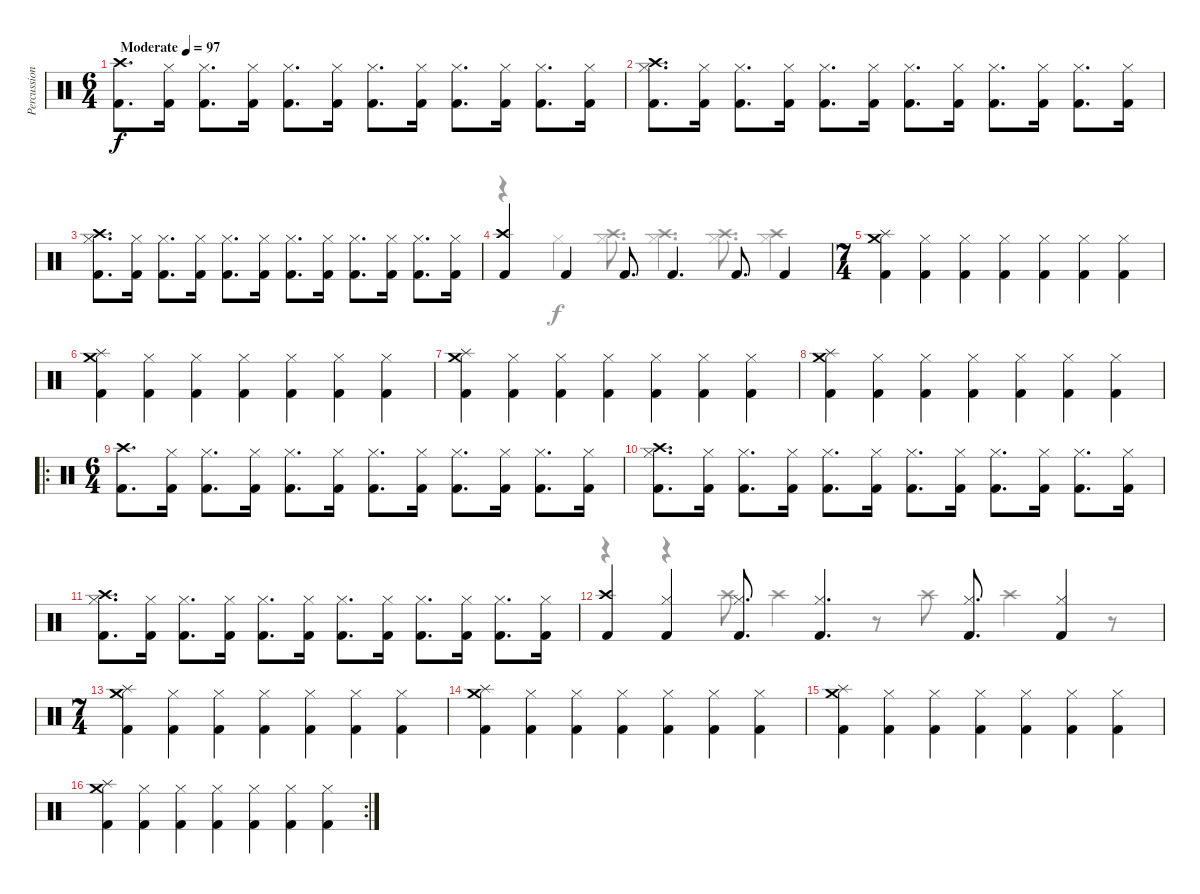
\track ("Percussion" "Percussion") {instrument percussion}
\staff {score}
\articulation defaults
\voice
\ts (6 4)
\tempo (97 "Moderate")
\clef neutral
\ks c
("Crash high (hit)" "Kick (hit) 2").8{d dy f} ("Kick (hit) 2" "Hi-Hat (closed)").16 ("Kick (hit) 2" "Hi-Hat (closed)").8{d} ("Kick (hit) 2" "Hi-Hat (closed)").16 ("Kick (hit) 2" "Hi-Hat (closed)").8{d} ("Kick (hit) 2" "Hi-Hat (closed)").16 ("Kick (hit) 2" "Hi-Hat (closed)").8{d} ("Kick (hit) 2" "Hi-Hat (closed)").16 ("Kick (hit) 2" "Hi-Hat (closed)").8{d} ("Kick (hit) 2" "Hi-Hat (closed)").16 ("Kick (hit) 2" "Hi-Hat (closed)").8{d} ("Kick (hit) 2" "Hi-Hat (closed)").16 |
("Crash high (hit)" "Kick (hit) 2" "Hi-Hat (closed)").8{d} ("Kick (hit) 2" "Hi-Hat (closed)").16 ("Kick (hit) 2" "Hi-Hat (closed)").8{d} ("Kick (hit) 2" "Hi-Hat (closed)").16 ("Kick (hit) 2" "Hi-Hat (closed)").8{d} ("Kick (hit) 2" "Hi-Hat (closed)").16 ("Kick (hit) 2" "Hi-Hat (closed)").8{d} ("Kick (hit) 2" "Hi-Hat (closed)").16 ("Kick (hit) 2" "Hi-Hat (closed)").8{d} ("Kick (hit) 2" "Hi-Hat (closed)").16 ("Kick (hit) 2" "Hi-Hat (closed)").8{d} ("Kick (hit) 2" "Hi-Hat (closed)").16 |
("Crash high (hit)" "Kick (hit) 2" "Hi-Hat (closed)").8{d} ("Kick (hit) 2" "Hi-Hat (closed)").16 ("Kick (hit) 2" "Hi-Hat (closed)").8{d} ("Kick (hit) 2" "Hi-Hat (closed)").16 ("Kick (hit) 2" "Hi-Hat (closed)").8{d} ("Kick (hit) 2" "Hi-Hat (closed)").16 ("Kick (hit) 2" "Hi-Hat (closed)").8{d} ("Kick (hit) 2" "Hi-Hat (closed)").16 ("Kick (hit) 2" "Hi-Hat (closed)").8{d} ("Kick (hit) 2" "Hi-Hat (closed)").16 ("Kick (hit) 2" "Hi-Hat (closed)").8{d} ("Kick (hit) 2" "Hi-Hat (closed)").16 |
("Kick (hit) 2" "Crash high (hit)").4 "Kick (hit) 2".4 "Kick (hit) 2".8{d} "Kick (hit) 2".4{d} "Kick (hit) 2".8{d} "Kick (hit) 2".4 |
\ts (7 4)
("Crash medium (hit)" "Kick (hit) 2" "Splash (hit)").4 ("Kick (hit) 2" "Hi-Hat (closed)").4 ("Kick (hit) 2" "Hi-Hat (closed)").4 ("Kick (hit) 2" "Hi-Hat (closed)").4 ("Kick (hit) 2" "Hi-Hat (closed)").4 ("Kick (hit) 2" "Hi-Hat (closed)").4 ("Kick (hit) 2" "Hi-Hat (closed)").4 |
("Crash medium (hit)" "Kick (hit) 2" "Splash (hit)").4 ("Kick (hit) 2" "Hi-Hat (closed)").4 ("Kick (hit) 2" "Hi-Hat (closed)").4 ("Kick (hit) 2" "Hi-Hat (closed)").4 ("Kick (hit) 2" "Hi-Hat (closed)").4 ("Kick (hit) 2" "Hi-Hat (closed)").4 ("Kick (hit) 2" "Hi-Hat (closed)").4 |
("Crash medium (hit)" "Kick (hit) 2" "Splash (hit)").4 ("Kick (hit) 2" "Hi-Hat (closed)").4 ("Kick (hit) 2" "Hi-Hat (closed)").4 ("Kick (hit) 2" "Hi-Hat (closed)").4 ("Kick (hit) 2" "Hi-Hat (closed)").4 ("Kick (hit) 2" "Hi-Hat (closed)").4 ("Kick (hit) 2" "Hi-Hat (closed)").4 |
("Crash medium (hit)" "Kick (hit) 2" "Splash (hit)").4 ("Kick (hit) 2" "Hi-Hat (closed)").4 ("Kick (hit) 2" "Hi-Hat (closed)").4 ("Kick (hit) 2" "Hi-Hat (closed)").4 ("Kick (hit) 2" "Hi-Hat (closed)").4 ("Kick (hit) 2" "Hi-Hat (closed)").4 ("Kick (hit) 2" "Hi-Hat (closed)").4 |
\ro
\ts (6 4)
("Crash high (hit)" "Kick (hit) 2").8{d} ("Kick (hit) 2" "Hi-Hat (closed)").16 ("Kick (hit) 2" "Hi-Hat (closed)").8{d} ("Kick (hit) 2" "Hi-Hat (closed)").16 ("Kick (hit) 2" "Hi-Hat (closed)").8{d} ("Kick (hit) 2" "Hi-Hat (closed)").16 ("Kick (hit) 2" "Hi-Hat (closed)").8{d} ("Kick (hit) 2" "Hi-Hat (closed)").16 ("Kick (hit) 2" "Hi-Hat (closed)").8{d} ("Kick (hit) 2" "Hi-Hat (closed)").16 ("Kick (hit) 2" "Hi-Hat (closed)").8{d} ("Kick (hit) 2" "Hi-Hat (closed)").16 |
("Crash high (hit)" "Kick (hit) 2" "Hi-Hat (closed)").8{d} ("Kick (hit) 2" "Hi-Hat (closed)").16 ("Kick (hit) 2" "Hi-Hat (closed)").8{d} ("Kick (hit) 2" "Hi-Hat (closed)").16 ("Kick (hit) 2" "Hi-Hat (closed)").8{d} ("Kick (hit) 2" "Hi-Hat (closed)").16 ("Kick (hit) 2" "Hi-Hat (closed)").8{d} ("Kick (hit) 2" "Hi-Hat (closed)").16 ("Kick (hit) 2" "Hi-Hat (closed)").8{d} ("Kick (hit) 2" "Hi-Hat (closed)").16 ("Kick (hit) 2" "Hi-Hat (closed)").8{d} ("Kick (hit) 2" "Hi-Hat (closed)").16 |
("Crash high (hit)" "Kick (hit) 2" "Hi-Hat (closed)").8{d} ("Kick (hit) 2" "Hi-Hat (closed)").16 ("Kick (hit) 2" "Hi-Hat (closed)").8{d} ("Kick (hit) 2" "Hi-Hat (closed)").16 ("Kick (hit) 2" "Hi-Hat (closed)").8{d} ("Kick (hit) 2" "Hi-Hat (closed)").16 ("Kick (hit) 2" "Hi-Hat (closed)").8{d} ("Kick (hit) 2" "Hi-Hat (closed)").16 ("Kick (hit) 2" "Hi-Hat (closed)").8{d} ("Kick (hit) 2" "Hi-Hat (closed)").16 ("Kick (hit) 2" "Hi-Hat (closed)").8{d} ("Kick (hit) 2" "Hi-Hat (closed)").16 |
("Kick (hit) 2" "Crash high (hit)").4 ("Kick (hit) 2" "Hi-Hat (closed)").4 ("Kick (hit) 2" "Hi-Hat (closed)").8{d} ("Kick (hit) 2" "Hi-Hat (closed)").4{d} ("Kick (hit) 2" "Hi-Hat (closed)").8{d} ("Kick (hit) 2" "Hi-Hat (closed)").4 |
\ts (7 4)
("Crash medium (hit)" "Kick (hit) 2" "Splash (hit)").4 ("Kick (hit) 2" "Hi-Hat (closed)").4 ("Kick (hit) 2" "Hi-Hat (closed)").4 ("Kick (hit) 2" "Hi-Hat (closed)").4 ("Kick (hit) 2" "Hi-Hat (closed)").4 ("Kick (hit) 2" "Hi-Hat (closed)").4 ("Kick (hit) 2" "Hi-Hat (closed)").4 |
("Crash medium (hit)" "Kick (hit) 2" "Splash (hit)").4 ("Kick (hit) 2" "Hi-Hat (closed)").4 ("Kick (hit) 2" "Hi-Hat (closed)").4 ("Kick (hit) 2" "Hi-Hat (closed)").4 ("Kick (hit) 2" "Hi-Hat (closed)").4 ("Kick (hit) 2" "Hi-Hat (closed)").4 ("Kick (hit) 2" "Hi-Hat (closed)").4 |
("Crash medium (hit)" "Kick (hit) 2" "Splash (hit)").4 ("Kick (hit) 2" "Hi-Hat (closed)").4 ("Kick (hit) 2" "Hi-Hat (closed)").4 ("Kick (hit) 2" "Hi-Hat (closed)").4 ("Kick (hit) 2" "Hi-Hat (closed)").4 ("Kick (hit) 2" "Hi-Hat (closed)").4 ("Kick (hit) 2" "Hi-Hat (closed)").4 |
\rc 2
("Crash medium (hit)" "Kick (hit) 2" "Splash (hit)").4 ("Kick (hit) 2" "Hi-Hat (closed)").4 ("Kick (hit) 2" "Hi-Hat (closed)").4 ("Kick (hit) 2" "Hi-Hat (closed)").4 ("Kick (hit) 2" "Hi-Hat (closed)").4 ("Kick (hit) 2" "Hi-Hat (closed)").4 ("Kick (hit) 2" "Hi-Hat (closed)").4
\voice
\clef neutral
\ottava regular
\simile none
\ks c
|
|
|
r.4 "Hi-Hat (closed)".4 ("Crash high (hit)" "Hi-Hat (closed)").8{d} ("Crash high (hit)" "Hi-Hat (closed)").4{d} ("Crash high (hit)" "Hi-Hat (closed)").8{d} ("Crash high (hit)" "Hi-Hat (closed)").4 |
|
|
|
|
|
|
|
r.4 r.4 "Crash high (hit)".8 "Crash high (hit)".4 r.8 "Crash high (hit)".8 "Crash high (hit)".4 r.8 |
|
|
|
